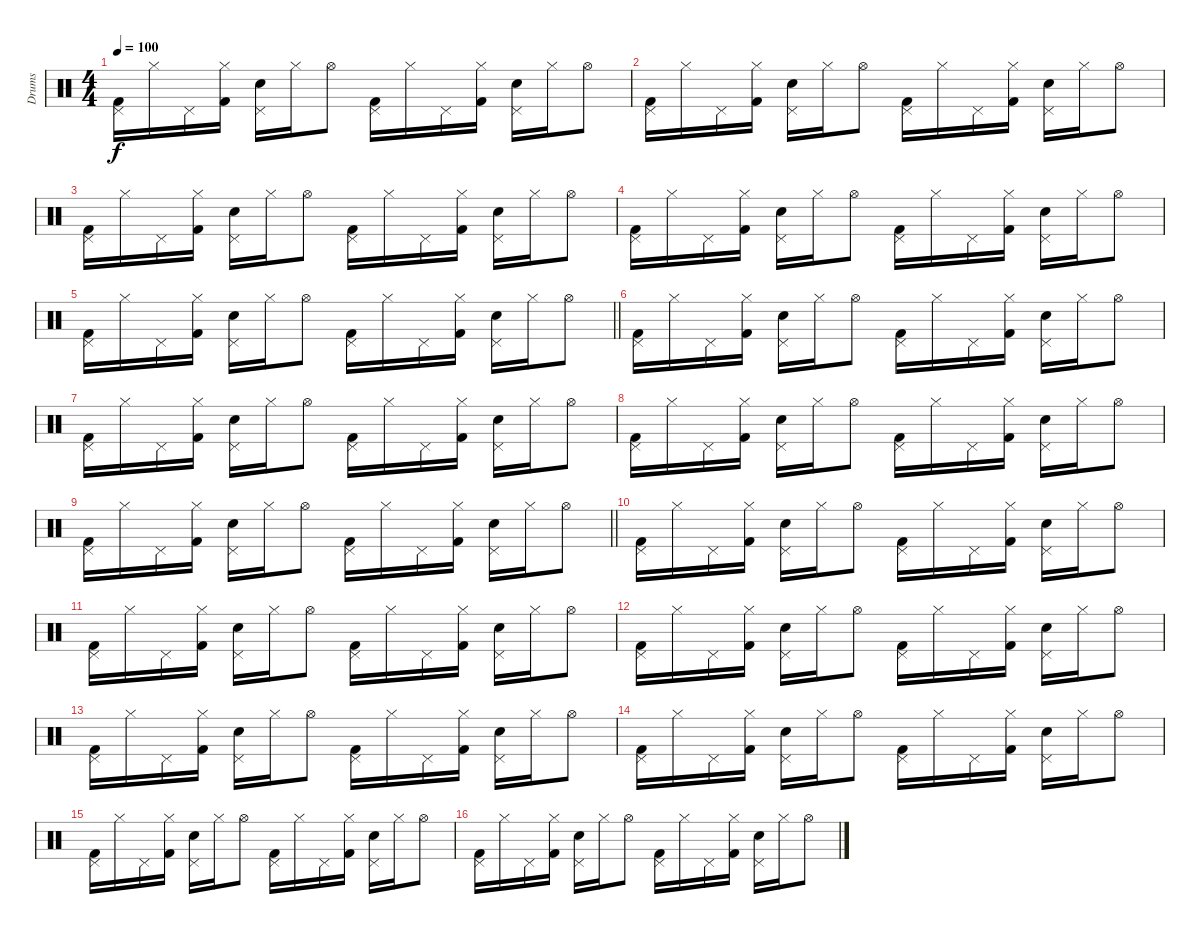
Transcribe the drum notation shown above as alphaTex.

\track ("Drums" "Drums") {instrument percussion}
\staff {score}
\articulation defaults
\ts (4 4)
\tempo 100
\clef neutral
\ks c
("Pedal Hi-Hat (hit)" "Kick (hit) 2").16{dy f} "Hi-Hat (closed)".16 "Pedal Hi-Hat (hit)".16 ("Hi-Hat (closed)" "Kick (hit) 2").16 ("Pedal Hi-Hat (hit)" "Electric Snare (hit)").16 "Hi-Hat (closed)".16 "Hi-Hat (open)".8 ("Pedal Hi-Hat (hit)" "Kick (hit) 2").16 "Hi-Hat (closed)".16 "Pedal Hi-Hat (hit)".16 ("Hi-Hat (closed)" "Kick (hit) 2").16 ("Pedal Hi-Hat (hit)" "Electric Snare (hit)").16 "Hi-Hat (closed)".16 "Hi-Hat (open)".8 |
("Pedal Hi-Hat (hit)" "Kick (hit) 2").16 "Hi-Hat (closed)".16 "Pedal Hi-Hat (hit)".16 ("Hi-Hat (closed)" "Kick (hit) 2").16 ("Pedal Hi-Hat (hit)" "Electric Snare (hit)").16 "Hi-Hat (closed)".16 "Hi-Hat (open)".8 ("Pedal Hi-Hat (hit)" "Kick (hit) 2").16 "Hi-Hat (closed)".16 "Pedal Hi-Hat (hit)".16 ("Hi-Hat (closed)" "Kick (hit) 2").16 ("Pedal Hi-Hat (hit)" "Electric Snare (hit)").16 "Hi-Hat (closed)".16 "Hi-Hat (open)".8 |
("Pedal Hi-Hat (hit)" "Kick (hit) 2").16 "Hi-Hat (closed)".16 "Pedal Hi-Hat (hit)".16 ("Hi-Hat (closed)" "Kick (hit) 2").16 ("Pedal Hi-Hat (hit)" "Electric Snare (hit)").16 "Hi-Hat (closed)".16 "Hi-Hat (open)".8 ("Pedal Hi-Hat (hit)" "Kick (hit) 2").16 "Hi-Hat (closed)".16 "Pedal Hi-Hat (hit)".16 ("Hi-Hat (closed)" "Kick (hit) 2").16 ("Pedal Hi-Hat (hit)" "Electric Snare (hit)").16 "Hi-Hat (closed)".16 "Hi-Hat (open)".8 |
("Pedal Hi-Hat (hit)" "Kick (hit) 2").16 "Hi-Hat (closed)".16 "Pedal Hi-Hat (hit)".16 ("Hi-Hat (closed)" "Kick (hit) 2").16 ("Pedal Hi-Hat (hit)" "Electric Snare (hit)").16 "Hi-Hat (closed)".16 "Hi-Hat (open)".8 ("Pedal Hi-Hat (hit)" "Kick (hit) 2").16 "Hi-Hat (closed)".16 "Pedal Hi-Hat (hit)".16 ("Hi-Hat (closed)" "Kick (hit) 2").16 ("Pedal Hi-Hat (hit)" "Electric Snare (hit)").16 "Hi-Hat (closed)".16 "Hi-Hat (open)".8 |
\barLineRight lightlight
("Pedal Hi-Hat (hit)" "Kick (hit) 2").16 "Hi-Hat (closed)".16 "Pedal Hi-Hat (hit)".16 ("Hi-Hat (closed)" "Kick (hit) 2").16 ("Pedal Hi-Hat (hit)" "Electric Snare (hit)").16 "Hi-Hat (closed)".16 "Hi-Hat (open)".8 ("Pedal Hi-Hat (hit)" "Kick (hit) 2").16 "Hi-Hat (closed)".16 "Pedal Hi-Hat (hit)".16 ("Hi-Hat (closed)" "Kick (hit) 2").16 ("Pedal Hi-Hat (hit)" "Electric Snare (hit)").16 "Hi-Hat (closed)".16 "Hi-Hat (open)".8 |
("Pedal Hi-Hat (hit)" "Kick (hit) 2").16 "Hi-Hat (closed)".16 "Pedal Hi-Hat (hit)".16 ("Hi-Hat (closed)" "Kick (hit) 2").16 ("Pedal Hi-Hat (hit)" "Electric Snare (hit)").16 "Hi-Hat (closed)".16 "Hi-Hat (open)".8 ("Pedal Hi-Hat (hit)" "Kick (hit) 2").16 "Hi-Hat (closed)".16 "Pedal Hi-Hat (hit)".16 ("Hi-Hat (closed)" "Kick (hit) 2").16 ("Pedal Hi-Hat (hit)" "Electric Snare (hit)").16 "Hi-Hat (closed)".16 "Hi-Hat (open)".8 |
("Pedal Hi-Hat (hit)" "Kick (hit) 2").16 "Hi-Hat (closed)".16 "Pedal Hi-Hat (hit)".16 ("Hi-Hat (closed)" "Kick (hit) 2").16 ("Pedal Hi-Hat (hit)" "Electric Snare (hit)").16 "Hi-Hat (closed)".16 "Hi-Hat (open)".8 ("Pedal Hi-Hat (hit)" "Kick (hit) 2").16 "Hi-Hat (closed)".16 "Pedal Hi-Hat (hit)".16 ("Hi-Hat (closed)" "Kick (hit) 2").16 ("Pedal Hi-Hat (hit)" "Electric Snare (hit)").16 "Hi-Hat (closed)".16 "Hi-Hat (open)".8 |
("Pedal Hi-Hat (hit)" "Kick (hit) 2").16 "Hi-Hat (closed)".16 "Pedal Hi-Hat (hit)".16 ("Hi-Hat (closed)" "Kick (hit) 2").16 ("Pedal Hi-Hat (hit)" "Electric Snare (hit)").16 "Hi-Hat (closed)".16 "Hi-Hat (open)".8 ("Pedal Hi-Hat (hit)" "Kick (hit) 2").16 "Hi-Hat (closed)".16 "Pedal Hi-Hat (hit)".16 ("Hi-Hat (closed)" "Kick (hit) 2").16 ("Pedal Hi-Hat (hit)" "Electric Snare (hit)").16 "Hi-Hat (closed)".16 "Hi-Hat (open)".8 |
\barLineRight lightlight
("Pedal Hi-Hat (hit)" "Kick (hit) 2").16 "Hi-Hat (closed)".16 "Pedal Hi-Hat (hit)".16 ("Hi-Hat (closed)" "Kick (hit) 2").16 ("Pedal Hi-Hat (hit)" "Electric Snare (hit)").16 "Hi-Hat (closed)".16 "Hi-Hat (open)".8 ("Pedal Hi-Hat (hit)" "Kick (hit) 2").16 "Hi-Hat (closed)".16 "Pedal Hi-Hat (hit)".16 ("Hi-Hat (closed)" "Kick (hit) 2").16 ("Pedal Hi-Hat (hit)" "Electric Snare (hit)").16 "Hi-Hat (closed)".16 "Hi-Hat (open)".8 |
("Pedal Hi-Hat (hit)" "Kick (hit) 2").16 "Hi-Hat (closed)".16 "Pedal Hi-Hat (hit)".16 ("Hi-Hat (closed)" "Kick (hit) 2").16 ("Pedal Hi-Hat (hit)" "Electric Snare (hit)").16 "Hi-Hat (closed)".16 "Hi-Hat (open)".8 ("Pedal Hi-Hat (hit)" "Kick (hit) 2").16 "Hi-Hat (closed)".16 "Pedal Hi-Hat (hit)".16 ("Hi-Hat (closed)" "Kick (hit) 2").16 ("Pedal Hi-Hat (hit)" "Electric Snare (hit)").16 "Hi-Hat (closed)".16 "Hi-Hat (open)".8 |
("Pedal Hi-Hat (hit)" "Kick (hit) 2").16 "Hi-Hat (closed)".16 "Pedal Hi-Hat (hit)".16 ("Hi-Hat (closed)" "Kick (hit) 2").16 ("Pedal Hi-Hat (hit)" "Electric Snare (hit)").16 "Hi-Hat (closed)".16 "Hi-Hat (open)".8 ("Pedal Hi-Hat (hit)" "Kick (hit) 2").16 "Hi-Hat (closed)".16 "Pedal Hi-Hat (hit)".16 ("Hi-Hat (closed)" "Kick (hit) 2").16 ("Pedal Hi-Hat (hit)" "Electric Snare (hit)").16 "Hi-Hat (closed)".16 "Hi-Hat (open)".8 |
("Pedal Hi-Hat (hit)" "Kick (hit) 2").16 "Hi-Hat (closed)".16 "Pedal Hi-Hat (hit)".16 ("Hi-Hat (closed)" "Kick (hit) 2").16 ("Pedal Hi-Hat (hit)" "Electric Snare (hit)").16 "Hi-Hat (closed)".16 "Hi-Hat (open)".8 ("Pedal Hi-Hat (hit)" "Kick (hit) 2").16 "Hi-Hat (closed)".16 "Pedal Hi-Hat (hit)".16 ("Hi-Hat (closed)" "Kick (hit) 2").16 ("Pedal Hi-Hat (hit)" "Electric Snare (hit)").16 "Hi-Hat (closed)".16 "Hi-Hat (open)".8 |
("Pedal Hi-Hat (hit)" "Kick (hit) 2").16 "Hi-Hat (closed)".16 "Pedal Hi-Hat (hit)".16 ("Hi-Hat (closed)" "Kick (hit) 2").16 ("Pedal Hi-Hat (hit)" "Electric Snare (hit)").16 "Hi-Hat (closed)".16 "Hi-Hat (open)".8 ("Pedal Hi-Hat (hit)" "Kick (hit) 2").16 "Hi-Hat (closed)".16 "Pedal Hi-Hat (hit)".16 ("Hi-Hat (closed)" "Kick (hit) 2").16 ("Pedal Hi-Hat (hit)" "Electric Snare (hit)").16 "Hi-Hat (closed)".16 "Hi-Hat (open)".8 |
("Pedal Hi-Hat (hit)" "Kick (hit) 2").16 "Hi-Hat (closed)".16 "Pedal Hi-Hat (hit)".16 ("Hi-Hat (closed)" "Kick (hit) 2").16 ("Pedal Hi-Hat (hit)" "Electric Snare (hit)").16 "Hi-Hat (closed)".16 "Hi-Hat (open)".8 ("Pedal Hi-Hat (hit)" "Kick (hit) 2").16 "Hi-Hat (closed)".16 "Pedal Hi-Hat (hit)".16 ("Hi-Hat (closed)" "Kick (hit) 2").16 ("Pedal Hi-Hat (hit)" "Electric Snare (hit)").16 "Hi-Hat (closed)".16 "Hi-Hat (open)".8 |
("Pedal Hi-Hat (hit)" "Kick (hit) 2").16 "Hi-Hat (closed)".16 "Pedal Hi-Hat (hit)".16 ("Hi-Hat (closed)" "Kick (hit) 2").16 ("Pedal Hi-Hat (hit)" "Electric Snare (hit)").16 "Hi-Hat (closed)".16 "Hi-Hat (open)".8 ("Pedal Hi-Hat (hit)" "Kick (hit) 2").16 "Hi-Hat (closed)".16 "Pedal Hi-Hat (hit)".16 ("Hi-Hat (closed)" "Kick (hit) 2").16 ("Pedal Hi-Hat (hit)" "Electric Snare (hit)").16 "Hi-Hat (closed)".16 "Hi-Hat (open)".8 |
("Pedal Hi-Hat (hit)" "Kick (hit) 2").16 "Hi-Hat (closed)".16 "Pedal Hi-Hat (hit)".16 ("Hi-Hat (closed)" "Kick (hit) 2").16 ("Pedal Hi-Hat (hit)" "Electric Snare (hit)").16 "Hi-Hat (closed)".16 "Hi-Hat (open)".8 ("Pedal Hi-Hat (hit)" "Kick (hit) 2").16 "Hi-Hat (closed)".16 "Pedal Hi-Hat (hit)".16 ("Hi-Hat (closed)" "Kick (hit) 2").16 ("Pedal Hi-Hat (hit)" "Electric Snare (hit)").16 "Hi-Hat (closed)".16 "Hi-Hat (open)".8
